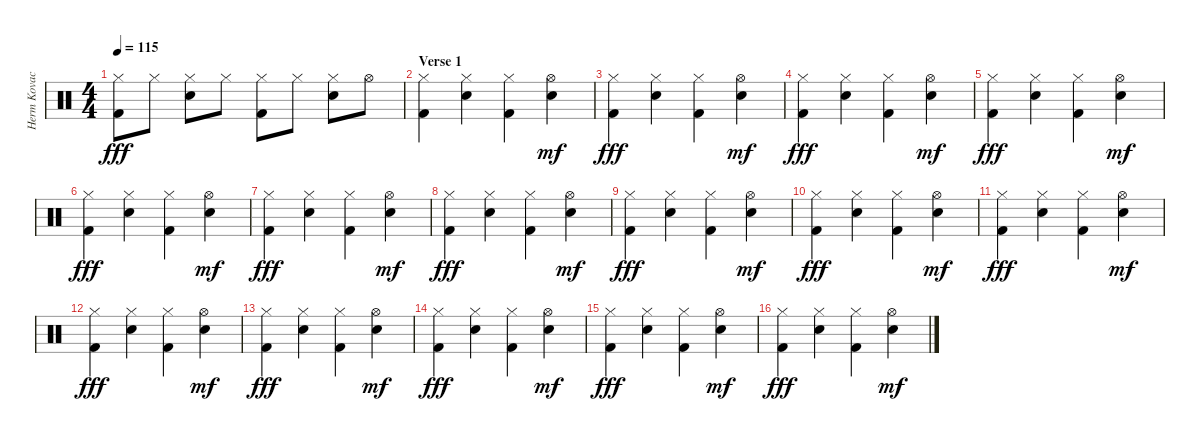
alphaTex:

\track ("Herm Kovacs" "Herm Kovac") {instrument percussion}
\staff {score}
\articulation defaults
\ts (4 4)
\tempo 115
\clef neutral
\ks c
("Hi-Hat (closed)" "Kick (hit) 2").8{dy fff} "Hi-Hat (closed)".8 ("Hi-Hat (closed)" "Electric Snare (hit)").8 "Hi-Hat (closed)".8 ("Hi-Hat (closed)" "Kick (hit) 2").8 "Hi-Hat (closed)".8 ("Hi-Hat (closed)" "Electric Snare (hit)").8 "Hi-Hat (open)".8 |
\section ("" "Verse 1")
("Hi-Hat (closed)" "Kick (hit) 2").4 ("Hi-Hat (closed)" "Electric Snare (hit)").4 ("Hi-Hat (closed)" "Kick (hit) 2").4 ("Hi-Hat (open)" "Electric Snare (hit)").4{dy mf} |
("Hi-Hat (closed)" "Kick (hit) 2").4{dy fff} ("Hi-Hat (closed)" "Electric Snare (hit)").4 ("Hi-Hat (closed)" "Kick (hit) 2").4 ("Hi-Hat (open)" "Electric Snare (hit)").4{dy mf} |
("Hi-Hat (closed)" "Kick (hit) 2").4{dy fff} ("Hi-Hat (closed)" "Electric Snare (hit)").4 ("Hi-Hat (closed)" "Kick (hit) 2").4 ("Hi-Hat (open)" "Electric Snare (hit)").4{dy mf} |
("Hi-Hat (closed)" "Kick (hit) 2").4{dy fff} ("Hi-Hat (closed)" "Electric Snare (hit)").4 ("Hi-Hat (closed)" "Kick (hit) 2").4 ("Hi-Hat (open)" "Electric Snare (hit)").4{dy mf} |
("Hi-Hat (closed)" "Kick (hit) 2").4{dy fff} ("Hi-Hat (closed)" "Electric Snare (hit)").4 ("Hi-Hat (closed)" "Kick (hit) 2").4 ("Hi-Hat (open)" "Electric Snare (hit)").4{dy mf} |
("Hi-Hat (closed)" "Kick (hit) 2").4{dy fff} ("Hi-Hat (closed)" "Electric Snare (hit)").4 ("Hi-Hat (closed)" "Kick (hit) 2").4 ("Hi-Hat (open)" "Electric Snare (hit)").4{dy mf} |
("Hi-Hat (closed)" "Kick (hit) 2").4{dy fff} ("Hi-Hat (closed)" "Electric Snare (hit)").4 ("Hi-Hat (closed)" "Kick (hit) 2").4 ("Hi-Hat (open)" "Electric Snare (hit)").4{dy mf} |
("Hi-Hat (closed)" "Kick (hit) 2").4{dy fff} ("Hi-Hat (closed)" "Electric Snare (hit)").4 ("Hi-Hat (closed)" "Kick (hit) 2").4 ("Hi-Hat (open)" "Electric Snare (hit)").4{dy mf} |
("Hi-Hat (closed)" "Kick (hit) 2").4{dy fff} ("Hi-Hat (closed)" "Electric Snare (hit)").4 ("Hi-Hat (closed)" "Kick (hit) 2").4 ("Hi-Hat (open)" "Electric Snare (hit)").4{dy mf} |
("Hi-Hat (closed)" "Kick (hit) 2").4{dy fff} ("Hi-Hat (closed)" "Electric Snare (hit)").4 ("Hi-Hat (closed)" "Kick (hit) 2").4 ("Hi-Hat (open)" "Electric Snare (hit)").4{dy mf} |
("Hi-Hat (closed)" "Kick (hit) 2").4{dy fff} ("Hi-Hat (closed)" "Electric Snare (hit)").4 ("Hi-Hat (closed)" "Kick (hit) 2").4 ("Hi-Hat (open)" "Electric Snare (hit)").4{dy mf} |
("Hi-Hat (closed)" "Kick (hit) 2").4{dy fff} ("Hi-Hat (closed)" "Electric Snare (hit)").4 ("Hi-Hat (closed)" "Kick (hit) 2").4 ("Hi-Hat (open)" "Electric Snare (hit)").4{dy mf} |
("Hi-Hat (closed)" "Kick (hit) 2").4{dy fff} ("Hi-Hat (closed)" "Electric Snare (hit)").4 ("Hi-Hat (closed)" "Kick (hit) 2").4 ("Hi-Hat (open)" "Electric Snare (hit)").4{dy mf} |
("Hi-Hat (closed)" "Kick (hit) 2").4{dy fff} ("Hi-Hat (closed)" "Electric Snare (hit)").4 ("Hi-Hat (closed)" "Kick (hit) 2").4 ("Hi-Hat (open)" "Electric Snare (hit)").4{dy mf} |
("Hi-Hat (closed)" "Kick (hit) 2").4{dy fff} ("Hi-Hat (closed)" "Electric Snare (hit)").4 ("Hi-Hat (closed)" "Kick (hit) 2").4 ("Hi-Hat (open)" "Electric Snare (hit)").4{dy mf}
